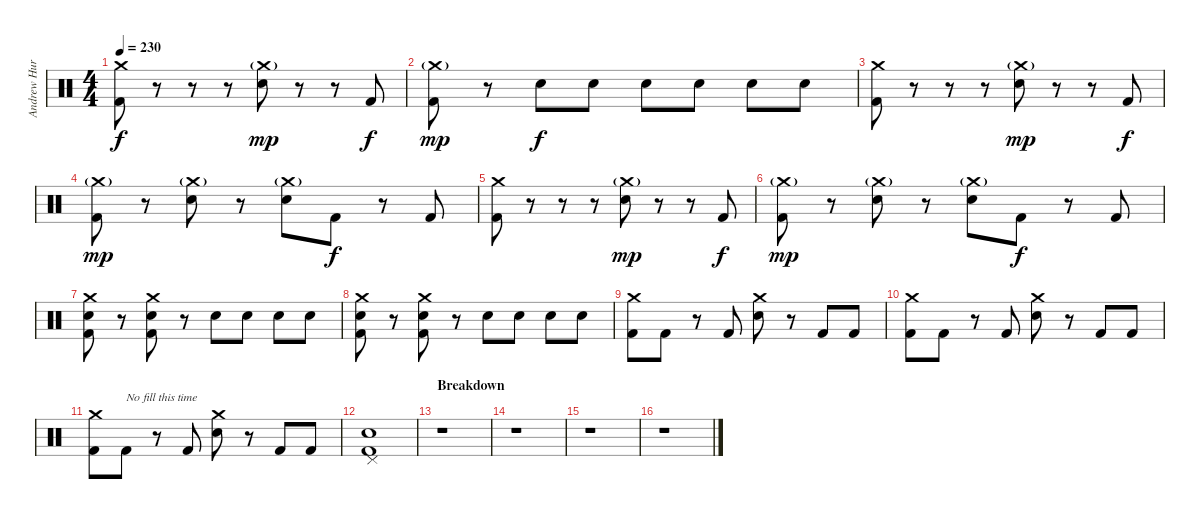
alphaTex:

\track ("Andrew Hurley (Drums)" "Andrew Hur") {instrument percussion}
\staff {score}
\articulation defaults
\ts (4 4)
\tempo 230
\clef neutral
\ks c
("Crash medium (hit)" "Kick (hit) 2").8{dy f} r.8 r.8 r.8 ("Crash medium (hit)"{g} "Electric Snare (hit)").8{dy mp} r.8 r.8 "Kick (hit) 2".8{dy f} |
("Crash medium (hit)"{g} "Kick (hit) 2").8{dy mp} r.8 "Electric Snare (hit)".8{dy f} "Electric Snare (hit)".8 "Electric Snare (hit)".8 "Electric Snare (hit)".8 "Electric Snare (hit)".8 "Electric Snare (hit)".8 |
("Crash medium (hit)" "Kick (hit) 2").8 r.8 r.8 r.8 ("Crash medium (hit)"{g} "Electric Snare (hit)").8{dy mp} r.8 r.8 "Kick (hit) 2".8{dy f} |
("Crash medium (hit)"{g} "Kick (hit) 2").8{dy mp} r.8 ("Crash medium (hit)"{g} "Electric Snare (hit)").8 r.8 ("Crash medium (hit)"{g} "Electric Snare (hit)").8 "Kick (hit) 2".8{dy f} r.8 "Kick (hit) 2".8 |
("Crash medium (hit)" "Kick (hit) 2").8 r.8 r.8 r.8 ("Crash medium (hit)"{g} "Electric Snare (hit)").8{dy mp} r.8 r.8 "Kick (hit) 2".8{dy f} |
("Crash medium (hit)"{g} "Kick (hit) 2").8{dy mp} r.8 ("Crash medium (hit)"{g} "Electric Snare (hit)").8 r.8 ("Crash medium (hit)"{g} "Electric Snare (hit)").8 "Kick (hit) 2".8{dy f} r.8 "Kick (hit) 2".8 |
("Crash medium (hit)" "Electric Snare (hit)" "Kick (hit) 2").8 r.8 ("Crash medium (hit)" "Electric Snare (hit)" "Kick (hit) 2").8 r.8 "Electric Snare (hit)".8 "Electric Snare (hit)".8 "Electric Snare (hit)".8 "Electric Snare (hit)".8 |
("Crash medium (hit)" "Electric Snare (hit)" "Kick (hit) 2").8 r.8 ("Crash medium (hit)" "Electric Snare (hit)" "Kick (hit) 2").8 r.8 "Electric Snare (hit)".8 "Electric Snare (hit)".8 "Electric Snare (hit)".8 "Electric Snare (hit)".8 |
("Crash medium (hit)" "Kick (hit) 2").8 "Kick (hit) 2".8 r.8 "Kick (hit) 2".8 ("Crash medium (hit)" "Electric Snare (hit)").8 r.8 "Kick (hit) 2".8 "Kick (hit) 2".8 |
("Crash medium (hit)" "Kick (hit) 2").8 "Kick (hit) 2".8 r.8 "Kick (hit) 2".8 ("Crash medium (hit)" "Electric Snare (hit)").8 r.8 "Kick (hit) 2".8 "Kick (hit) 2".8 |
("Crash medium (hit)" "Kick (hit) 2").8 "Kick (hit) 2".8{txt "No fill this time"} r.8 "Kick (hit) 2".8 ("Crash medium (hit)" "Electric Snare (hit)").8 r.8 "Kick (hit) 2".8 "Kick (hit) 2".8 |
("Pedal Hi-Hat (hit)" "Electric Snare (hit)" "Kick (hit) 2").1 |
\section ("" "Breakdown")
r.1 |
r.1 |
r.1 |
r.1
